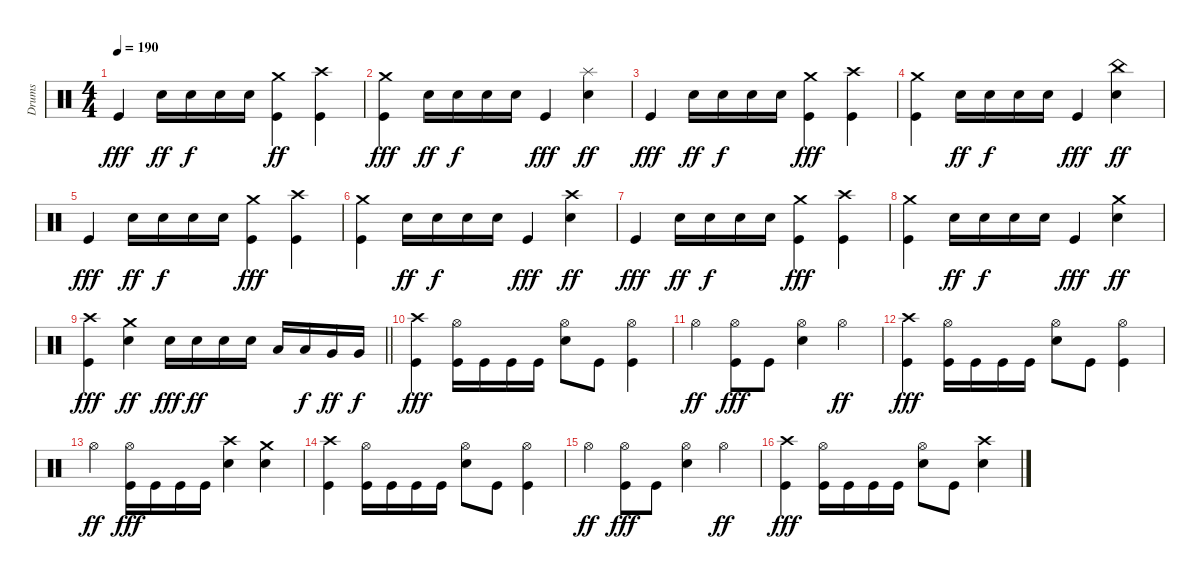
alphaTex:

\track ("Drums" "Drums") {instrument percussion}
\staff {score}
\articulation defaults
\ts (4 4)
\tempo 190
\clef neutral
\ks c "Kick (hit)".4{dy fff} "Snare (hit) 2".16{dy ff} "Snare (hit) 2".16{dy f} "Snare (hit) 2".16 "Snare (hit) 2".16
("Crash medium (hit)" "Kick (hit)").4{dy ff} ("Crash high (hit)" "Kick (hit)").4 |
("Crash medium (hit)" "Kick (hit)").4{dy fff} "Snare (hit) 2".16{dy ff} "Snare (hit) 2".16{dy f} "Snare (hit) 2".16 "Snare (hit) 2".16 "Kick (hit)".4{dy fff} ("Splash (hit)" "Snare (hit) 2").4{dy ff} |
"Kick (hit)".4{dy fff} "Snare (hit) 2".16{dy ff} "Snare (hit) 2".16{dy f} "Snare (hit) 2".16 "Snare (hit) 2".16 ("Crash medium (hit)" "Kick (hit)").4{dy fff} ("Crash high (hit)" "Kick (hit)").4 |
("Crash medium (hit)" "Kick (hit)").4 "Snare (hit) 2".16{dy ff} "Snare (hit) 2".16{dy f} "Snare (hit) 2".16 "Snare (hit) 2".16 "Kick (hit)".4{dy fff} ("China (hit)" "Snare (hit) 2").4{dy ff} |
"Kick (hit)".4{dy fff} "Snare (hit) 2".16{dy ff} "Snare (hit) 2".16{dy f} "Snare (hit) 2".16 "Snare (hit) 2".16 ("Crash medium (hit)" "Kick (hit)").4{dy fff} ("Crash high (hit)" "Kick (hit)").4 |
("Crash medium (hit)" "Kick (hit)").4 "Snare (hit) 2".16{dy ff} "Snare (hit) 2".16{dy f} "Snare (hit) 2".16 "Snare (hit) 2".16 "Kick (hit)".4{dy fff} ("Crash high (hit)" "Snare (hit) 2").4{dy ff} |
"Kick (hit)".4{dy fff} "Snare (hit) 2".16{dy ff} "Snare (hit) 2".16{dy f} "Snare (hit) 2".16 "Snare (hit) 2".16 ("Crash medium (hit)" "Kick (hit)").4{dy fff} ("Crash high (hit)" "Kick (hit)").4 |
("Crash medium (hit)" "Kick (hit)").4 "Snare (hit) 2".16{dy ff} "Snare (hit) 2".16{dy f} "Snare (hit) 2".16 "Snare (hit) 2".16 "Kick (hit)".4{dy fff} ("Crash medium (hit)" "Snare (hit) 2").4{dy ff} |
\barLineRight lightlight
("Crash high (hit)" "Kick (hit)").4{dy fff} ("Crash medium (hit)" "Snare (hit) 2").4{dy ff} "Snare (hit) 2".16{dy fff} "Snare (hit) 2".16{dy ff} "Snare (hit) 2".16 "Snare (hit) 2".16 "Low Tom (hit)".16 "Low Tom (hit)".16{dy f} "Very Low Tom (hit)".16{dy ff} "Very Low Tom (hit)".16{dy f} |
("Crash high (hit)" "Kick (hit)").4{dy fff} ("Hi-Hat (open)" "Kick (hit)").16 "Kick (hit)".16 "Kick (hit)".16 "Kick (hit)".16 ("Hi-Hat (open)" "Snare (hit) 2").8 "Kick (hit)".8 ("Hi-Hat (open)" "Kick (hit)").4 |
"Hi-Hat (open)".4{dy ff} ("Hi-Hat (open)" "Kick (hit)").8{dy fff} "Kick (hit)".8 ("Hi-Hat (open)" "Snare (hit) 2").4 "Hi-Hat (open)".4{dy ff} |
("Crash high (hit)" "Kick (hit)").4{dy fff} ("Hi-Hat (open)" "Kick (hit)").16 "Kick (hit)".16 "Kick (hit)".16 "Kick (hit)".16 ("Hi-Hat (open)" "Snare (hit) 2").8 "Kick (hit)".8 ("Hi-Hat (open)" "Kick (hit)").4 |
"Hi-Hat (open)".4{dy ff} ("Hi-Hat (open)" "Kick (hit)").16{dy fff} "Kick (hit)".16 "Kick (hit)".16 "Kick (hit)".16 ("Crash high (hit)" "Snare (hit) 2").4 ("Crash medium (hit)" "Snare (hit) 2").4 |
("Crash high (hit)" "Kick (hit)").4 ("Hi-Hat (open)" "Kick (hit)").16 "Kick (hit)".16 "Kick (hit)".16 "Kick (hit)".16 ("Hi-Hat (open)" "Snare (hit) 2").8 "Kick (hit)".8 ("Hi-Hat (open)" "Kick (hit)").4 |
"Hi-Hat (open)".4{dy ff} ("Hi-Hat (open)" "Kick (hit)").8{dy fff} "Kick (hit)".8 ("Hi-Hat (open)" "Snare (hit) 2").4 "Hi-Hat (open)".4{dy ff} |
("Crash high (hit)" "Kick (hit)").4{dy fff} ("Hi-Hat (open)" "Kick (hit)").16 "Kick (hit)".16 "Kick (hit)".16 "Kick (hit)".16 ("Hi-Hat (open)" "Snare (hit) 2").8 "Kick (hit)".8 ("Crash high (hit)" "Snare (hit) 2").4
